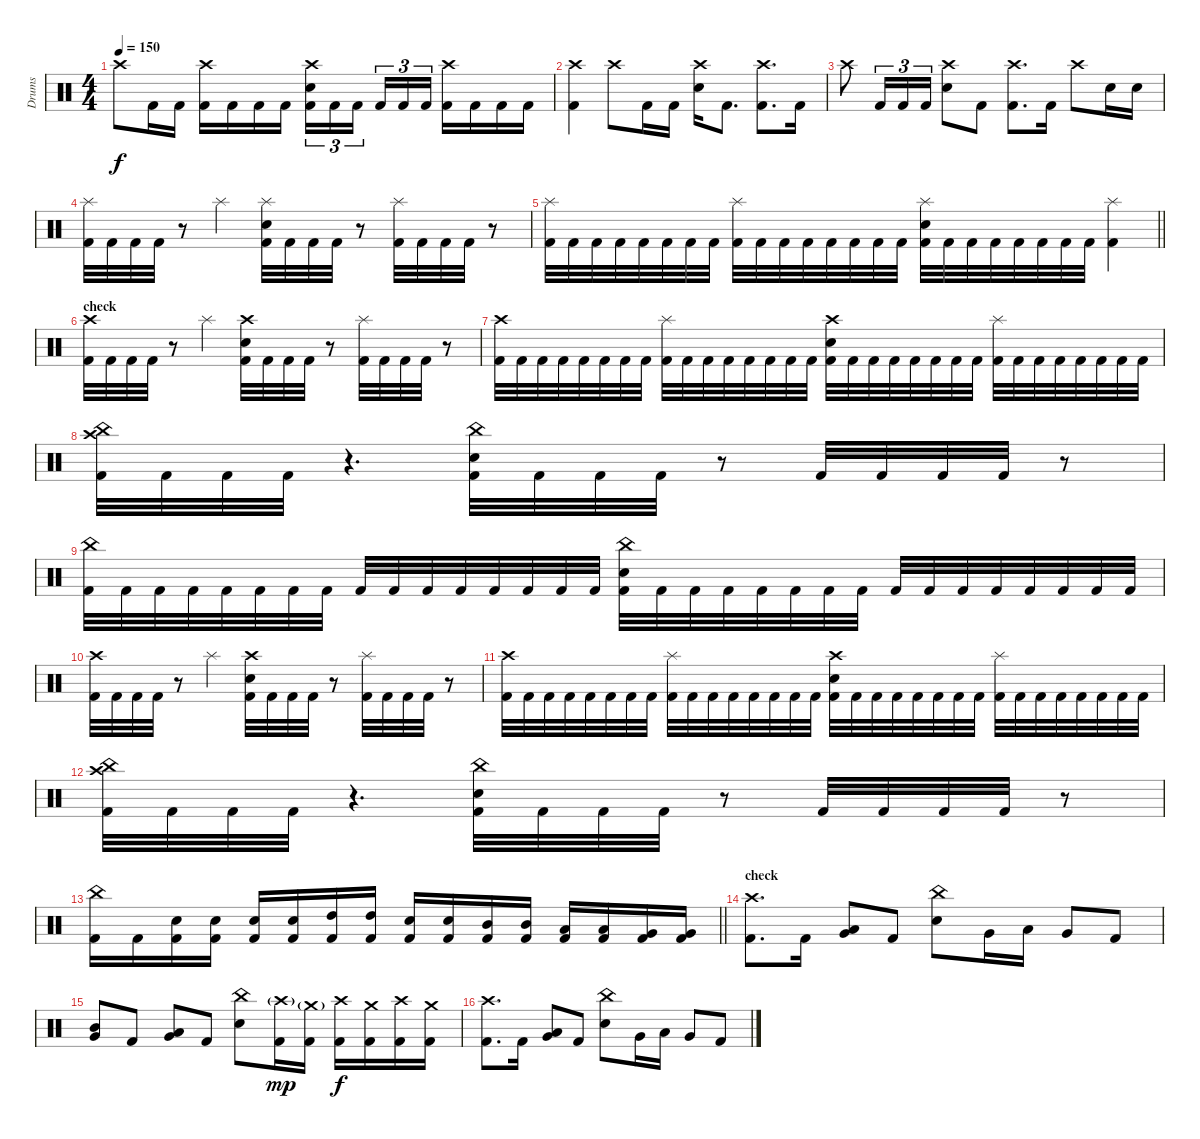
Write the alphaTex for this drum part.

\track ("Drums" "Drums") {instrument percussion}
\staff {score}
\articulation defaults
\ts (4 4)
\tempo 150
\clef neutral
\ks c "Crash high (hit)".8{dy f} "Kick (hit) 2".16 "Kick (hit) 2".16
("Crash high (hit)" "Kick (hit) 2").16 "Kick (hit) 2".16 "Kick (hit) 2".16 "Kick (hit) 2".16 ("Crash high (hit)" "Snare (hit) 2" "Kick (hit) 2").16{tu (3 2)} "Kick (hit) 2".16{tu (3 2)} "Kick (hit) 2".16{tu (3 2) beam splitsecondary} "Kick (hit) 2".16{tu (3 2)} "Kick (hit) 2".16{tu (3 2)} "Kick (hit) 2".16{tu (3 2)} ("Crash high (hit)" "Kick (hit) 2").16 "Kick (hit) 2".16 "Kick (hit) 2".16 "Kick (hit) 2".16 |
("Crash high (hit)" "Kick (hit) 2").4 "Crash high (hit)".8 "Kick (hit) 2".16 "Kick (hit) 2".16 ("Crash high (hit)" "Snare (hit) 2").16 "Kick (hit) 2".8{d} ("Crash high (hit)" "Kick (hit) 2").8{d} "Kick (hit) 2".16 |
"Crash high (hit)".8 "Kick (hit) 2".16{tu (3 2)} "Kick (hit) 2".16{tu (3 2)} "Kick (hit) 2".16{tu (3 2)} ("Crash high (hit)" "Snare (hit) 2").8 "Kick (hit) 2".8 ("Crash high (hit)" "Kick (hit) 2").8{d} "Kick (hit) 2".16 "Crash high (hit)".8 "Snare (hit) 2".16 "Snare (hit) 2".16 |
("Splash (hit)" "Kick (hit) 2").32 "Kick (hit) 2".32 "Kick (hit) 2".32 "Kick (hit) 2".32 r.8 "Splash (hit)".4 ("Splash (hit)" "Snare (hit) 2" "Kick (hit) 2").32 "Kick (hit) 2".32 "Kick (hit) 2".32 "Kick (hit) 2".32 r.8 ("Splash (hit)" "Kick (hit) 2").32 "Kick (hit) 2".32 "Kick (hit) 2".32 "Kick (hit) 2".32 r.8 |
\barLineRight lightlight
("Splash (hit)" "Kick (hit) 2").32 "Kick (hit) 2".32 "Kick (hit) 2".32 "Kick (hit) 2".32 "Kick (hit) 2".32 "Kick (hit) 2".32 "Kick (hit) 2".32 "Kick (hit) 2".32 ("Splash (hit)" "Kick (hit) 2").32 "Kick (hit) 2".32 "Kick (hit) 2".32 "Kick (hit) 2".32 "Kick (hit) 2".32 "Kick (hit) 2".32 "Kick (hit) 2".32 "Kick (hit) 2".32 ("Splash (hit)" "Snare (hit) 2" "Kick (hit) 2").32 "Kick (hit) 2".32 "Kick (hit) 2".32 "Kick (hit) 2".32 "Kick (hit) 2".32 "Kick (hit) 2".32 "Kick (hit) 2".32 "Kick (hit) 2".32 ("Splash (hit)" "Kick (hit) 2").4 |
\section ("" "check")
("Crash high (hit)" "Kick (hit) 2").32 "Kick (hit) 2".32 "Kick (hit) 2".32 "Kick (hit) 2".32 r.8 "Splash (hit)".4 ("Crash high (hit)" "Snare (hit) 2" "Kick (hit) 2").32 "Kick (hit) 2".32 "Kick (hit) 2".32 "Kick (hit) 2".32 r.8 ("Splash (hit)" "Kick (hit) 2").32 "Kick (hit) 2".32 "Kick (hit) 2".32 "Kick (hit) 2".32 r.8 |
("Crash high (hit)" "Kick (hit) 2").32 "Kick (hit) 2".32 "Kick (hit) 2".32 "Kick (hit) 2".32 "Kick (hit) 2".32 "Kick (hit) 2".32 "Kick (hit) 2".32 "Kick (hit) 2".32 ("Splash (hit)" "Kick (hit) 2").32 "Kick (hit) 2".32 "Kick (hit) 2".32 "Kick (hit) 2".32 "Kick (hit) 2".32 "Kick (hit) 2".32 "Kick (hit) 2".32 "Kick (hit) 2".32 ("Crash high (hit)" "Snare (hit) 2" "Kick (hit) 2").32 "Kick (hit) 2".32 "Kick (hit) 2".32 "Kick (hit) 2".32 "Kick (hit) 2".32 "Kick (hit) 2".32 "Kick (hit) 2".32 "Kick (hit) 2".32 ("Splash (hit)" "Kick (hit) 2").32 "Kick (hit) 2".32 "Kick (hit) 2".32 "Kick (hit) 2".32 "Kick (hit) 2".32 "Kick (hit) 2".32 "Kick (hit) 2".32 "Kick (hit) 2".32 |
("Crash high (hit)" "China (hit)" "Kick (hit) 2").32 "Kick (hit) 2".32 "Kick (hit) 2".32 "Kick (hit) 2".32 r.4{d} ("China (hit)" "Snare (hit) 2" "Kick (hit) 2").32 "Kick (hit) 2".32 "Kick (hit) 2".32 "Kick (hit) 2".32 r.8 "Kick (hit) 2".32 "Kick (hit) 2".32 "Kick (hit) 2".32 "Kick (hit) 2".32 r.8 |
("China (hit)" "Kick (hit) 2").32 "Kick (hit) 2".32 "Kick (hit) 2".32 "Kick (hit) 2".32 "Kick (hit) 2".32 "Kick (hit) 2".32 "Kick (hit) 2".32 "Kick (hit) 2".32 "Kick (hit) 2".32 "Kick (hit) 2".32 "Kick (hit) 2".32 "Kick (hit) 2".32 "Kick (hit) 2".32 "Kick (hit) 2".32 "Kick (hit) 2".32 "Kick (hit) 2".32 ("China (hit)" "Snare (hit) 2" "Kick (hit) 2").32 "Kick (hit) 2".32 "Kick (hit) 2".32 "Kick (hit) 2".32 "Kick (hit) 2".32 "Kick (hit) 2".32 "Kick (hit) 2".32 "Kick (hit) 2".32 "Kick (hit) 2".32 "Kick (hit) 2".32 "Kick (hit) 2".32 "Kick (hit) 2".32 "Kick (hit) 2".32 "Kick (hit) 2".32 "Kick (hit) 2".32 "Kick (hit) 2".32 |
("Crash high (hit)" "Kick (hit) 2").32 "Kick (hit) 2".32 "Kick (hit) 2".32 "Kick (hit) 2".32 r.8 "Splash (hit)".4 ("Crash high (hit)" "Snare (hit) 2" "Kick (hit) 2").32 "Kick (hit) 2".32 "Kick (hit) 2".32 "Kick (hit) 2".32 r.8 ("Splash (hit)" "Kick (hit) 2").32 "Kick (hit) 2".32 "Kick (hit) 2".32 "Kick (hit) 2".32 r.8 |
("Crash high (hit)" "Kick (hit) 2").32 "Kick (hit) 2".32 "Kick (hit) 2".32 "Kick (hit) 2".32 "Kick (hit) 2".32 "Kick (hit) 2".32 "Kick (hit) 2".32 "Kick (hit) 2".32 ("Splash (hit)" "Kick (hit) 2").32 "Kick (hit) 2".32 "Kick (hit) 2".32 "Kick (hit) 2".32 "Kick (hit) 2".32 "Kick (hit) 2".32 "Kick (hit) 2".32 "Kick (hit) 2".32 ("Crash high (hit)" "Snare (hit) 2" "Kick (hit) 2").32 "Kick (hit) 2".32 "Kick (hit) 2".32 "Kick (hit) 2".32 "Kick (hit) 2".32 "Kick (hit) 2".32 "Kick (hit) 2".32 "Kick (hit) 2".32 ("Splash (hit)" "Kick (hit) 2").32 "Kick (hit) 2".32 "Kick (hit) 2".32 "Kick (hit) 2".32 "Kick (hit) 2".32 "Kick (hit) 2".32 "Kick (hit) 2".32 "Kick (hit) 2".32 |
("Crash high (hit)" "China (hit)" "Kick (hit) 2").32 "Kick (hit) 2".32 "Kick (hit) 2".32 "Kick (hit) 2".32 r.4{d} ("China (hit)" "Snare (hit) 2" "Kick (hit) 2").32 "Kick (hit) 2".32 "Kick (hit) 2".32 "Kick (hit) 2".32 r.8 "Kick (hit) 2".32 "Kick (hit) 2".32 "Kick (hit) 2".32 "Kick (hit) 2".32 r.8 |
\barLineRight lightlight
("China (hit)" "Kick (hit) 2").16 "Kick (hit) 2".16 ("Snare (hit) 2" "Kick (hit) 2").16 ("Snare (hit) 2" "Kick (hit) 2").16 ("Snare (hit) 2" "Kick (hit) 2").16 ("Snare (hit) 2" "Kick (hit) 2").16 ("High Tom (hit)" "Kick (hit) 2").16 ("High Tom (hit)" "Kick (hit) 2").16 ("Snare (hit) 2" "Kick (hit) 2").16 ("Snare (hit) 2" "Kick (hit) 2").16 ("Mid Tom (hit)" "Kick (hit) 2").16 ("Mid Tom (hit)" "Kick (hit) 2").16 ("Low Tom (hit)" "Kick (hit) 2").16 ("Low Tom (hit)" "Kick (hit) 2").16 ("Very Low Tom (hit)" "Kick (hit) 2").16 ("Very Low Tom (hit)" "Kick (hit) 2").16 |
\section ("" "check")
("Crash high (hit)" "Kick (hit) 2").8{d} "Kick (hit) 2".16 ("Low Tom (hit)" "Very Low Tom (hit)").8 "Kick (hit) 2".8 ("China (hit)" "Snare (hit) 2").8 "Very Low Tom (hit)".16 "Low Tom (hit)".16 "Very Low Tom (hit)".8 "Kick (hit) 2".8 |
("Mid Tom (hit)" "Very Low Tom (hit)").8 "Kick (hit) 2".8 ("Low Tom (hit)" "Very Low Tom (hit)").8 "Kick (hit) 2".8 ("China (hit)" "Snare (hit) 2").8 ("Crash high (hit)"{g} "Kick (hit) 2").16{dy mp} ("Crash medium (hit)"{g} "Kick (hit) 2").16 ("Crash high (hit)" "Kick (hit) 2").16{dy f} ("Crash medium (hit)" "Kick (hit) 2").16 ("Crash high (hit)" "Kick (hit) 2").16 ("Crash medium (hit)" "Kick (hit) 2").16 |
("Crash high (hit)" "Kick (hit) 2").8{d} "Kick (hit) 2".16 ("Low Tom (hit)" "Very Low Tom (hit)").8 "Kick (hit) 2".8 ("China (hit)" "Snare (hit) 2").8 "Very Low Tom (hit)".16 "Low Tom (hit)".16 "Very Low Tom (hit)".8 "Kick (hit) 2".8
